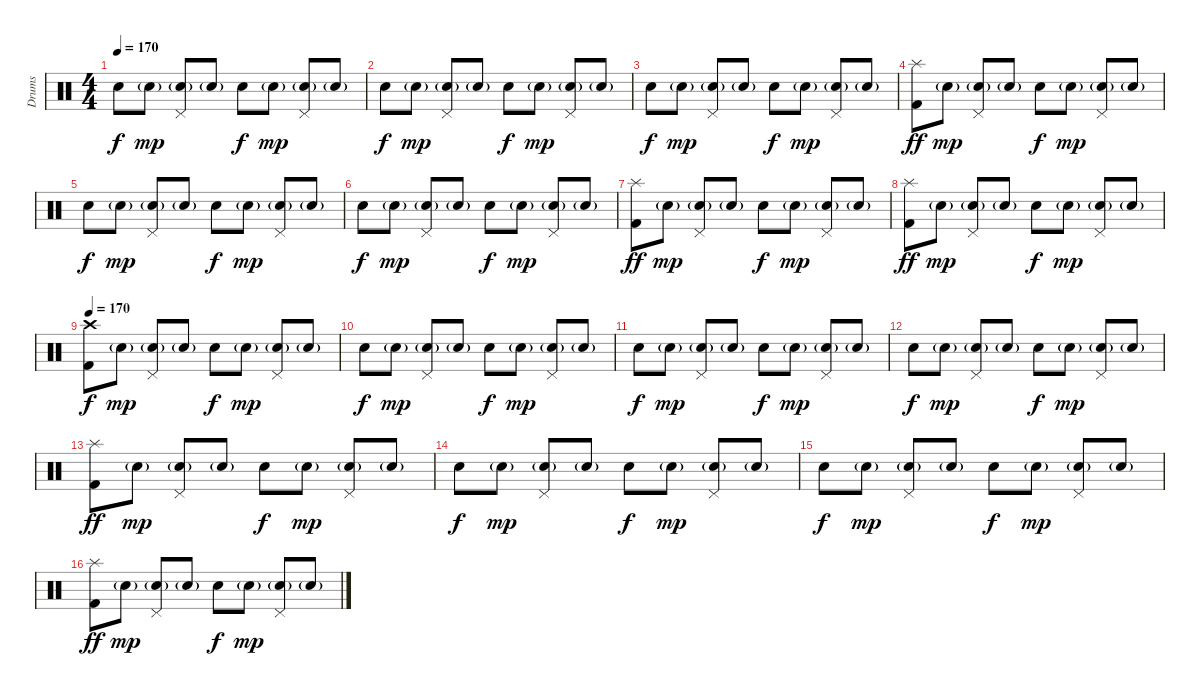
\track ("Drums" "Drums") {instrument percussion}
\staff {score}
\articulation defaults
\ts (4 4)
\tempo 170
\clef neutral
\ks c "Electric Snare (hit)".8{dy f} "Electric Snare (hit)"{g}.8{dy mp}
("Pedal Hi-Hat (hit)" "Electric Snare (hit)"{g}).8 "Electric Snare (hit)"{g}.8 "Electric Snare (hit)".8{dy f} "Electric Snare (hit)"{g}.8{dy mp} ("Pedal Hi-Hat (hit)" "Electric Snare (hit)"{g}).8 "Electric Snare (hit)"{g}.8 |
"Electric Snare (hit)".8{dy f} "Electric Snare (hit)"{g}.8{dy mp} ("Pedal Hi-Hat (hit)" "Electric Snare (hit)"{g}).8 "Electric Snare (hit)"{g}.8 "Electric Snare (hit)".8{dy f} "Electric Snare (hit)"{g}.8{dy mp} ("Pedal Hi-Hat (hit)" "Electric Snare (hit)"{g}).8 "Electric Snare (hit)"{g}.8 |
"Electric Snare (hit)".8{dy f} "Electric Snare (hit)"{g}.8{dy mp} ("Pedal Hi-Hat (hit)" "Electric Snare (hit)"{g}).8 "Electric Snare (hit)"{g}.8 "Electric Snare (hit)".8{dy f} "Electric Snare (hit)"{g}.8{dy mp} ("Pedal Hi-Hat (hit)" "Electric Snare (hit)"{g}).8 "Electric Snare (hit)"{g}.8 |
("Splash (hit)" "Kick (hit) 2").8{dy ff} "Electric Snare (hit)"{g}.8{dy mp} ("Pedal Hi-Hat (hit)" "Electric Snare (hit)"{g}).8 "Electric Snare (hit)"{g}.8 "Electric Snare (hit)".8{dy f} "Electric Snare (hit)"{g}.8{dy mp} ("Pedal Hi-Hat (hit)" "Electric Snare (hit)"{g}).8 "Electric Snare (hit)"{g}.8 |
"Electric Snare (hit)".8{dy f} "Electric Snare (hit)"{g}.8{dy mp} ("Pedal Hi-Hat (hit)" "Electric Snare (hit)"{g}).8 "Electric Snare (hit)"{g}.8 "Electric Snare (hit)".8{dy f} "Electric Snare (hit)"{g}.8{dy mp} ("Pedal Hi-Hat (hit)" "Electric Snare (hit)"{g}).8 "Electric Snare (hit)"{g}.8 |
"Electric Snare (hit)".8{dy f} "Electric Snare (hit)"{g}.8{dy mp} ("Pedal Hi-Hat (hit)" "Electric Snare (hit)"{g}).8 "Electric Snare (hit)"{g}.8 "Electric Snare (hit)".8{dy f} "Electric Snare (hit)"{g}.8{dy mp} ("Pedal Hi-Hat (hit)" "Electric Snare (hit)"{g}).8 "Electric Snare (hit)"{g}.8 |
("Splash (hit)" "Kick (hit) 2").8{dy ff} "Electric Snare (hit)"{g}.8{dy mp} ("Pedal Hi-Hat (hit)" "Electric Snare (hit)"{g}).8 "Electric Snare (hit)"{g}.8 "Electric Snare (hit)".8{dy f} "Electric Snare (hit)"{g}.8{dy mp} ("Pedal Hi-Hat (hit)" "Electric Snare (hit)"{g}).8 "Electric Snare (hit)"{g}.8 |
("Splash (hit)" "Kick (hit) 2").8{dy ff} "Electric Snare (hit)"{g}.8{dy mp} ("Pedal Hi-Hat (hit)" "Electric Snare (hit)"{g}).8 "Electric Snare (hit)"{g}.8 "Electric Snare (hit)".8{dy f} "Electric Snare (hit)"{g}.8{dy mp} ("Pedal Hi-Hat (hit)" "Electric Snare (hit)"{g}).8 "Electric Snare (hit)"{g}.8 |
\tempo 170
("Crash high (hit)" "Kick (hit) 2").8{dy f} "Electric Snare (hit)"{g}.8{dy mp} ("Pedal Hi-Hat (hit)" "Electric Snare (hit)"{g}).8 "Electric Snare (hit)"{g}.8 "Electric Snare (hit)".8{dy f} "Electric Snare (hit)"{g}.8{dy mp} ("Pedal Hi-Hat (hit)" "Electric Snare (hit)"{g}).8 "Electric Snare (hit)"{g}.8 |
"Electric Snare (hit)".8{dy f} "Electric Snare (hit)"{g}.8{dy mp} ("Pedal Hi-Hat (hit)" "Electric Snare (hit)"{g}).8 "Electric Snare (hit)"{g}.8 "Electric Snare (hit)".8{dy f} "Electric Snare (hit)"{g}.8{dy mp} ("Pedal Hi-Hat (hit)" "Electric Snare (hit)"{g}).8 "Electric Snare (hit)"{g}.8 |
"Electric Snare (hit)".8{dy f} "Electric Snare (hit)"{g}.8{dy mp} ("Pedal Hi-Hat (hit)" "Electric Snare (hit)"{g}).8 "Electric Snare (hit)"{g}.8 "Electric Snare (hit)".8{dy f} "Electric Snare (hit)"{g}.8{dy mp} ("Pedal Hi-Hat (hit)" "Electric Snare (hit)"{g}).8 "Electric Snare (hit)"{g}.8 |
"Electric Snare (hit)".8{dy f} "Electric Snare (hit)"{g}.8{dy mp} ("Pedal Hi-Hat (hit)" "Electric Snare (hit)"{g}).8 "Electric Snare (hit)"{g}.8 "Electric Snare (hit)".8{dy f} "Electric Snare (hit)"{g}.8{dy mp} ("Pedal Hi-Hat (hit)" "Electric Snare (hit)"{g}).8 "Electric Snare (hit)"{g}.8 |
("Splash (hit)" "Kick (hit) 2").8{dy ff} "Electric Snare (hit)"{g}.8{dy mp} ("Pedal Hi-Hat (hit)" "Electric Snare (hit)"{g}).8 "Electric Snare (hit)"{g}.8 "Electric Snare (hit)".8{dy f} "Electric Snare (hit)"{g}.8{dy mp} ("Pedal Hi-Hat (hit)" "Electric Snare (hit)"{g}).8 "Electric Snare (hit)"{g}.8 |
"Electric Snare (hit)".8{dy f} "Electric Snare (hit)"{g}.8{dy mp} ("Pedal Hi-Hat (hit)" "Electric Snare (hit)"{g}).8 "Electric Snare (hit)"{g}.8 "Electric Snare (hit)".8{dy f} "Electric Snare (hit)"{g}.8{dy mp} ("Pedal Hi-Hat (hit)" "Electric Snare (hit)"{g}).8 "Electric Snare (hit)"{g}.8 |
"Electric Snare (hit)".8{dy f} "Electric Snare (hit)"{g}.8{dy mp} ("Pedal Hi-Hat (hit)" "Electric Snare (hit)"{g}).8 "Electric Snare (hit)"{g}.8 "Electric Snare (hit)".8{dy f} "Electric Snare (hit)"{g}.8{dy mp} ("Pedal Hi-Hat (hit)" "Electric Snare (hit)"{g}).8 "Electric Snare (hit)"{g}.8 |
("Splash (hit)" "Kick (hit) 2").8{dy ff} "Electric Snare (hit)"{g}.8{dy mp} ("Pedal Hi-Hat (hit)" "Electric Snare (hit)"{g}).8 "Electric Snare (hit)"{g}.8 "Electric Snare (hit)".8{dy f} "Electric Snare (hit)"{g}.8{dy mp} ("Pedal Hi-Hat (hit)" "Electric Snare (hit)"{g}).8 "Electric Snare (hit)"{g}.8
